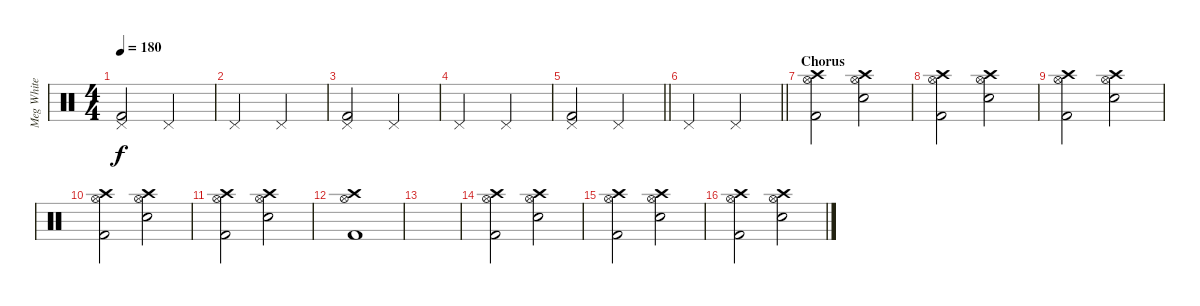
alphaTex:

\track ("Meg White" "Meg White") {instrument percussion}
\staff {score}
\articulation defaults
\ts (4 4)
\tempo 180
\clef neutral
\ks c
("Kick (hit) 2" "Pedal Hi-Hat (hit)").2{dy f} "Pedal Hi-Hat (hit)".2 |
"Pedal Hi-Hat (hit)".2 "Pedal Hi-Hat (hit)".2 |
("Kick (hit) 2" "Pedal Hi-Hat (hit)").2 "Pedal Hi-Hat (hit)".2 |
"Pedal Hi-Hat (hit)".2 "Pedal Hi-Hat (hit)".2 |
\barLineRight lightlight
("Kick (hit) 2" "Pedal Hi-Hat (hit)").2 "Pedal Hi-Hat (hit)".2 |
\barLineRight lightlight "Pedal Hi-Hat (hit)".2 "Pedal Hi-Hat (hit)".2
|
\section ("" "Chorus")
("Crash high (hit)" "Hi-Hat (open)" "Kick (hit) 2").2 ("Crash high (hit)" "Hi-Hat (open)" "Electric Snare (hit)").2 |
("Crash high (hit)" "Hi-Hat (open)" "Kick (hit) 2").2 ("Crash high (hit)" "Hi-Hat (open)" "Electric Snare (hit)").2 |
("Crash high (hit)" "Hi-Hat (open)" "Kick (hit) 2").2 ("Crash high (hit)" "Hi-Hat (open)" "Electric Snare (hit)").2 |
("Crash high (hit)" "Hi-Hat (open)" "Kick (hit) 2").2 ("Crash high (hit)" "Hi-Hat (open)" "Electric Snare (hit)").2 |
("Crash high (hit)" "Hi-Hat (open)" "Kick (hit) 2").2 ("Crash high (hit)" "Hi-Hat (open)" "Electric Snare (hit)").2 |
("Crash high (hit)" "Hi-Hat (open)" "Kick (hit) 2").1 |
|
("Crash high (hit)" "Hi-Hat (open)" "Kick (hit) 2").2 ("Crash high (hit)" "Hi-Hat (open)" "Electric Snare (hit)").2 |
("Crash high (hit)" "Hi-Hat (open)" "Kick (hit) 2").2 ("Crash high (hit)" "Hi-Hat (open)" "Electric Snare (hit)").2 |
("Crash high (hit)" "Hi-Hat (open)" "Kick (hit) 2").2 ("Crash high (hit)" "Hi-Hat (open)" "Electric Snare (hit)").2
